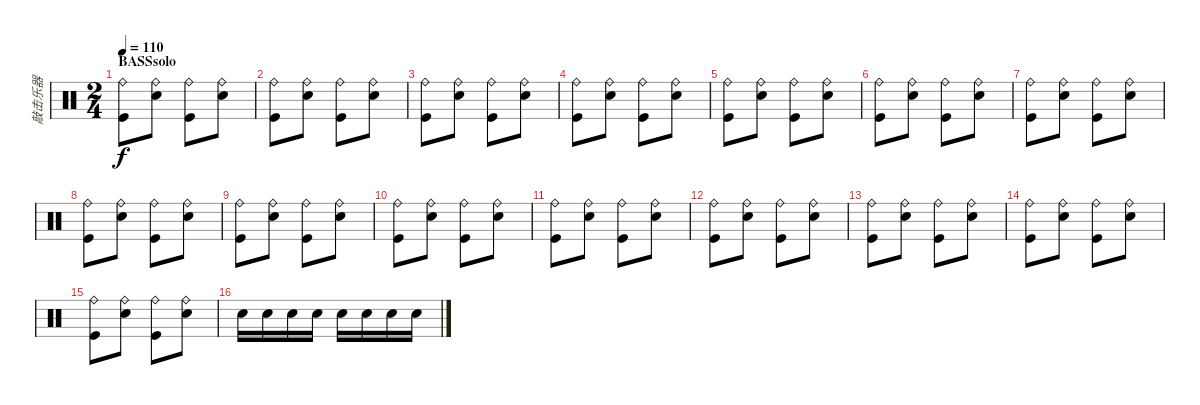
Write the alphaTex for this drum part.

\track ("敲击乐器" "敲击乐器") {instrument percussion}
\staff {score}
\articulation defaults
\ts (2 4)
\section ("" "BASSsolo")
\tempo 110
\clef neutral
\ks c
("Ride (bell)" "Kick (hit)").8{dy f} ("Ride (bell)" "Snare (hit) 2").8 ("Ride (bell)" "Kick (hit)").8 ("Ride (bell)" "Snare (hit) 2").8 |
("Ride (bell)" "Kick (hit)").8 ("Ride (bell)" "Snare (hit) 2").8 ("Ride (bell)" "Kick (hit)").8 ("Ride (bell)" "Snare (hit) 2").8 |
("Ride (bell)" "Kick (hit)").8 ("Ride (bell)" "Snare (hit) 2").8 ("Ride (bell)" "Kick (hit)").8 ("Ride (bell)" "Snare (hit) 2").8 |
("Ride (bell)" "Kick (hit)").8 ("Ride (bell)" "Snare (hit) 2").8 ("Ride (bell)" "Kick (hit)").8 ("Ride (bell)" "Snare (hit) 2").8 |
("Ride (bell)" "Kick (hit)").8 ("Ride (bell)" "Snare (hit) 2").8 ("Ride (bell)" "Kick (hit)").8 ("Ride (bell)" "Snare (hit) 2").8 |
("Ride (bell)" "Kick (hit)").8 ("Ride (bell)" "Snare (hit) 2").8 ("Ride (bell)" "Kick (hit)").8 ("Ride (bell)" "Snare (hit) 2").8 |
("Ride (bell)" "Kick (hit)").8 ("Ride (bell)" "Snare (hit) 2").8 ("Ride (bell)" "Kick (hit)").8 ("Ride (bell)" "Snare (hit) 2").8 |
("Ride (bell)" "Kick (hit)").8 ("Ride (bell)" "Snare (hit) 2").8 ("Ride (bell)" "Kick (hit)").8 ("Ride (bell)" "Snare (hit) 2").8 |
("Ride (bell)" "Kick (hit)").8 ("Ride (bell)" "Snare (hit) 2").8 ("Ride (bell)" "Kick (hit)").8 ("Ride (bell)" "Snare (hit) 2").8 |
("Ride (bell)" "Kick (hit)").8 ("Ride (bell)" "Snare (hit) 2").8 ("Ride (bell)" "Kick (hit)").8 ("Ride (bell)" "Snare (hit) 2").8 |
("Ride (bell)" "Kick (hit)").8 ("Ride (bell)" "Snare (hit) 2").8 ("Ride (bell)" "Kick (hit)").8 ("Ride (bell)" "Snare (hit) 2").8 |
("Ride (bell)" "Kick (hit)").8 ("Ride (bell)" "Snare (hit) 2").8 ("Ride (bell)" "Kick (hit)").8 ("Ride (bell)" "Snare (hit) 2").8 |
("Ride (bell)" "Kick (hit)").8 ("Ride (bell)" "Snare (hit) 2").8 ("Ride (bell)" "Kick (hit)").8 ("Ride (bell)" "Snare (hit) 2").8 |
("Ride (bell)" "Kick (hit)").8 ("Ride (bell)" "Snare (hit) 2").8 ("Ride (bell)" "Kick (hit)").8 ("Ride (bell)" "Snare (hit) 2").8 |
("Ride (bell)" "Kick (hit)").8 ("Ride (bell)" "Snare (hit) 2").8 ("Ride (bell)" "Kick (hit)").8 ("Ride (bell)" "Snare (hit) 2").8 |
"Snare (hit) 2".16 "Snare (hit) 2".16 "Snare (hit) 2".16 "Snare (hit) 2".16 "Snare (hit) 2".16 "Snare (hit) 2".16 "Snare (hit) 2".16 "Snare (hit) 2".16
